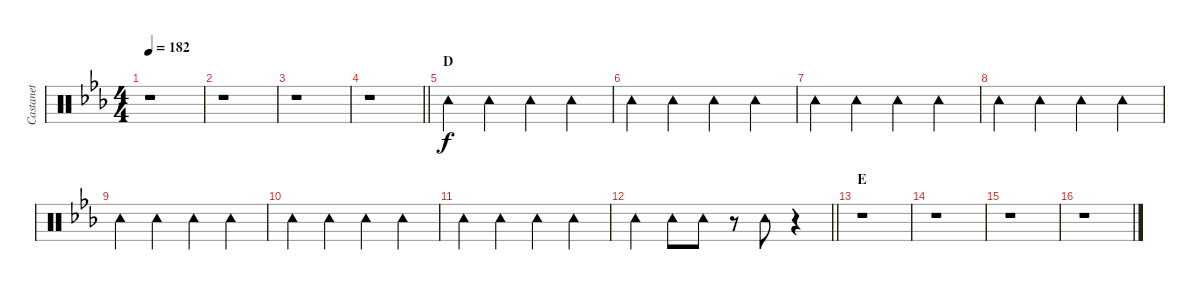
\track ("Castanet" "Castanet") {instrument percussion}
\staff {score}
\articulation defaults
\ts (4 4)
\tempo 182
\clef neutral
\ks eb
r.1{dy f} |
r.1 |
r.1 |
\barLineRight lightlight
r.1 |
\section ("" "D")
"Tambourine (hit)".4 "Tambourine (hit)".4 "Tambourine (hit)".4 "Tambourine (hit)".4 |
"Tambourine (hit)".4 "Tambourine (hit)".4 "Tambourine (hit)".4 "Tambourine (hit)".4 |
"Tambourine (hit)".4 "Tambourine (hit)".4 "Tambourine (hit)".4 "Tambourine (hit)".4 |
"Tambourine (hit)".4 "Tambourine (hit)".4 "Tambourine (hit)".4 "Tambourine (hit)".4 |
"Tambourine (hit)".4 "Tambourine (hit)".4 "Tambourine (hit)".4 "Tambourine (hit)".4 |
"Tambourine (hit)".4 "Tambourine (hit)".4 "Tambourine (hit)".4 "Tambourine (hit)".4 |
"Tambourine (hit)".4 "Tambourine (hit)".4 "Tambourine (hit)".4 "Tambourine (hit)".4 |
\barLineRight lightlight "Tambourine (hit)".4 "Tambourine (hit)".8 "Tambourine (hit)".8
r.8 "Tambourine (hit)".8 r.4 |
\section ("" "E")
r.1 |
r.1 |
r.1 |
r.1
